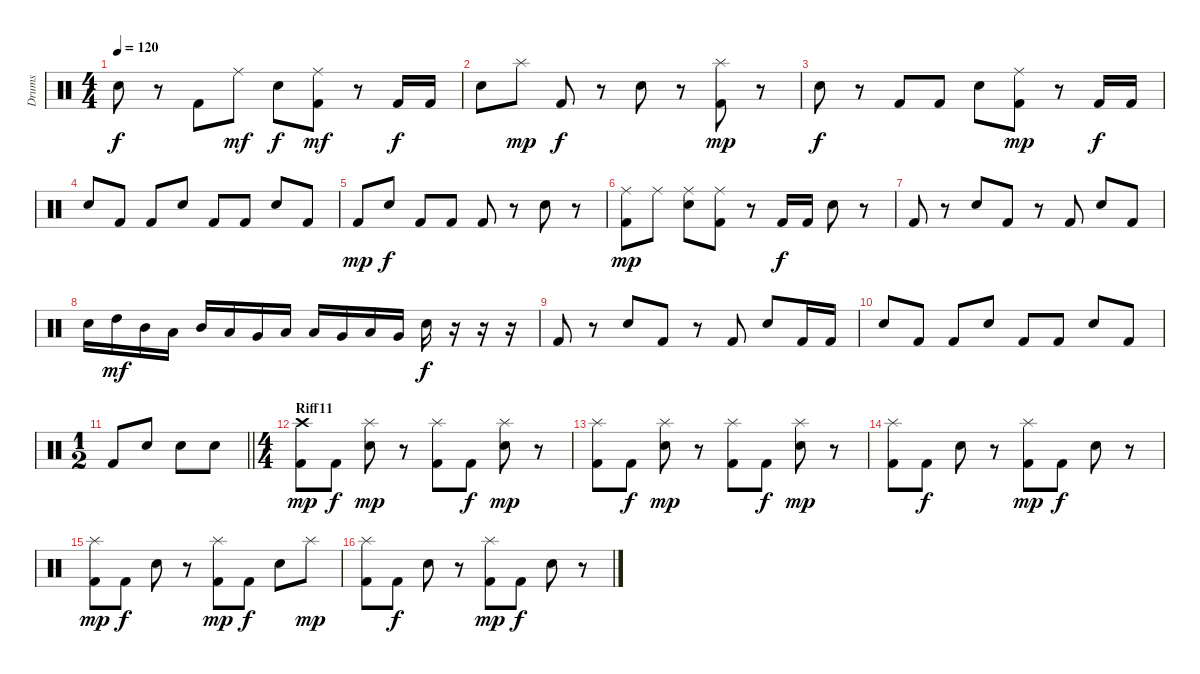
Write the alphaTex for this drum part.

\track ("Drums" "Drums") {instrument percussion}
\staff {score}
\articulation defaults
\ts (4 4)
\tempo 120
\clef neutral
\ks c "Snare (hit) 2".8{dy f}
r.8 "Kick (hit) 2".8 "Ride (middle)".8{dy mf} "Snare (hit) 2".8{dy f} ("Kick (hit) 2" "Ride (middle)").8{dy mf} r.8 "Kick (hit) 2".16{dy f} "Kick (hit) 2".16 |
"Snare (hit) 2".8 "Splash (hit)".8{dy mp} "Kick (hit) 2".8{dy f} r.8 "Snare (hit) 2".8 r.8 ("Kick (hit) 2" "Splash (hit)").8{dy mp} r.8 |
"Snare (hit) 2".8{dy f} r.8 "Kick (hit) 2".8 "Kick (hit) 2".8 "Snare (hit) 2".8 ("Kick (hit) 2" "Ride (middle)").8{dy mp} r.8 "Kick (hit) 2".16{dy f} "Kick (hit) 2".16 |
"Snare (hit) 2".8 "Kick (hit) 2".8 "Kick (hit) 2".8 "Snare (hit) 2".8 "Kick (hit) 2".8 "Kick (hit) 2".8 "Snare (hit) 2".8 "Kick (hit) 2".8 |
"Kick (hit) 2".8{dy mp} "Snare (hit) 2".8{dy f} "Kick (hit) 2".8 "Kick (hit) 2".8 "Kick (hit) 2".8 r.8 "Snare (hit) 2".8 r.8 |
("Kick (hit) 2" "Ride (middle)").8{dy mp} "Ride (middle)".8 ("Ride (middle)" "Snare (hit) 2").8 ("Kick (hit) 2" "Ride (middle)").8 r.8 "Kick (hit) 2".16{dy f} "Kick (hit) 2".16 "Snare (hit) 2".8 r.8 |
"Kick (hit) 2".8 r.8 "Snare (hit) 2".8 "Kick (hit) 2".8 r.8 "Kick (hit) 2".8 "Snare (hit) 2".8 "Kick (hit) 2".8 |
"Snare (hit) 2".16 "High Tom (hit)".16{dy mf} "Mid Tom (hit)".16 "Low Tom (hit)".16 "Mid Tom (hit)".16 "Low Tom (hit)".16 "Very Low Tom (hit)".16 "Low Floor Tom (hit)".16 "Low Tom (hit)".16 "Very Low Tom (hit)".16 "Low Floor Tom (hit)".16 "Very Low Tom (hit)".16 "Snare (hit) 2".16{dy f} r.16 r.16 r.16 |
"Kick (hit) 2".8 r.8 "Snare (hit) 2".8 "Kick (hit) 2".8 r.8 "Kick (hit) 2".8 "Snare (hit) 2".8 "Kick (hit) 2".16 "Kick (hit) 2".16 |
"Snare (hit) 2".8 "Kick (hit) 2".8 "Kick (hit) 2".8 "Snare (hit) 2".8 "Kick (hit) 2".8 "Kick (hit) 2".8 "Snare (hit) 2".8 "Kick (hit) 2".8 |
\ts (1 2)
\barLineRight lightlight "Kick (hit) 2".8 "Snare (hit) 2".8 "Snare (hit) 2".8 "Snare (hit) 2".8
|
\ts (4 4)
\section ("" "Riff11")
("Kick (hit) 2" "Crash high (hit)").8{dy mp} "Kick (hit) 2".8{dy f} ("Splash (hit)" "Snare (hit) 2").8{dy mp} r.8 ("Kick (hit) 2" "Splash (hit)").8 "Kick (hit) 2".8{dy f} ("Splash (hit)" "Snare (hit) 2").8{dy mp} r.8 |
("Kick (hit) 2" "Splash (hit)").8 "Kick (hit) 2".8{dy f} ("Splash (hit)" "Snare (hit) 2").8{dy mp} r.8 ("Kick (hit) 2" "Splash (hit)").8 "Kick (hit) 2".8{dy f} ("Splash (hit)" "Snare (hit) 2").8{dy mp} r.8 |
("Kick (hit) 2" "Splash (hit)").8 "Kick (hit) 2".8{dy f} "Snare (hit) 2".8 r.8 ("Kick (hit) 2" "Splash (hit)").8{dy mp} "Kick (hit) 2".8{dy f} "Snare (hit) 2".8 r.8 |
("Kick (hit) 2" "Splash (hit)").8{dy mp} "Kick (hit) 2".8{dy f} "Snare (hit) 2".8 r.8 ("Kick (hit) 2" "Splash (hit)").8{dy mp} "Kick (hit) 2".8{dy f} "Snare (hit) 2".8 "Splash (hit)".8{dy mp} |
("Kick (hit) 2" "Splash (hit)").8 "Kick (hit) 2".8{dy f} "Snare (hit) 2".8 r.8 ("Kick (hit) 2" "Splash (hit)").8{dy mp} "Kick (hit) 2".8{dy f} "Snare (hit) 2".8 r.8
